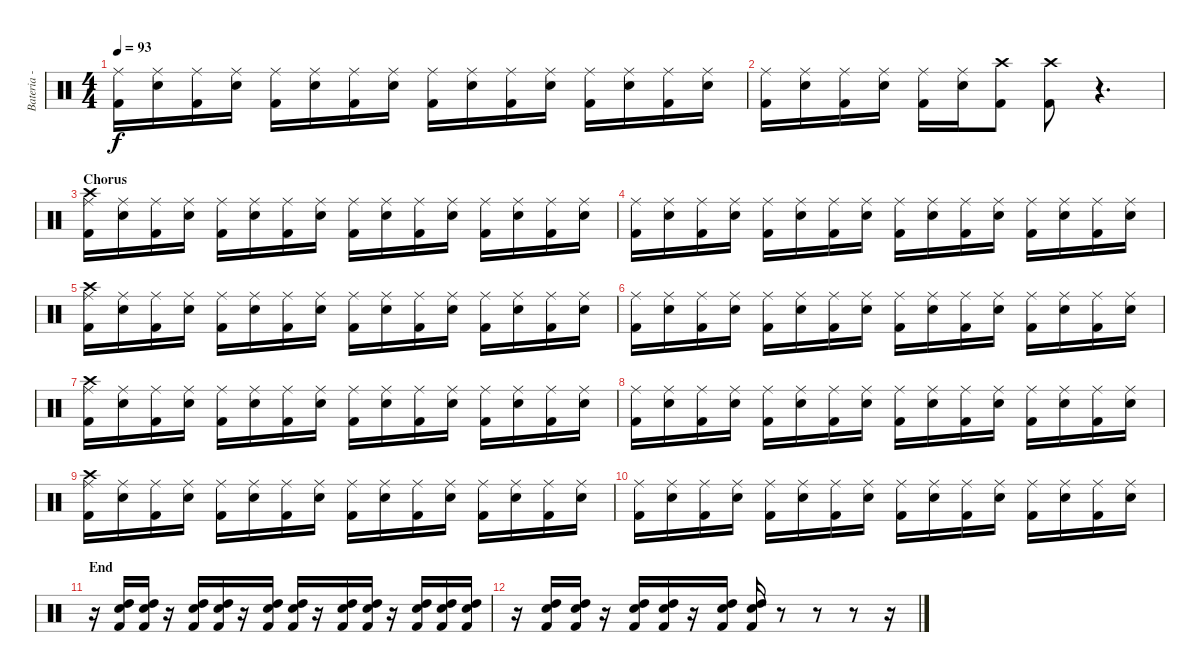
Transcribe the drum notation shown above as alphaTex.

\track ("Bateria - Larzon" "Bateria - ") {instrument percussion}
\staff {score}
\articulation defaults
\ts (4 4)
\tempo 93
\clef neutral
\ks c
("Kick (hit) 2" "Ride (middle)").16{dy f} ("Electric Snare (hit)" "Ride (middle)").16 ("Kick (hit) 2" "Ride (middle)").16 ("Electric Snare (hit)" "Ride (middle)").16 ("Kick (hit) 2" "Ride (middle)").16 ("Electric Snare (hit)" "Ride (middle)").16 ("Kick (hit) 2" "Ride (middle)").16 ("Electric Snare (hit)" "Ride (middle)").16 ("Kick (hit) 2" "Ride (middle)").16 ("Electric Snare (hit)" "Ride (middle)").16 ("Kick (hit) 2" "Ride (middle)").16 ("Electric Snare (hit)" "Ride (middle)").16 ("Kick (hit) 2" "Ride (middle)").16 ("Electric Snare (hit)" "Ride (middle)").16 ("Kick (hit) 2" "Ride (middle)").16 ("Electric Snare (hit)" "Ride (middle)").16 |
("Kick (hit) 2" "Ride (middle)").16 ("Electric Snare (hit)" "Ride (middle)").16 ("Kick (hit) 2" "Ride (middle)").16 ("Electric Snare (hit)" "Ride (middle)").16 ("Kick (hit) 2" "Ride (middle)").16 ("Electric Snare (hit)" "Ride (middle)").16 ("Kick (hit) 2" "Crash high (hit)").8 ("Kick (hit) 2" "Crash high (hit)").8 r.4{d} |
\section ("" "Chorus ")
("Kick (hit) 2" "Crash high (hit)" "Ride (middle)").16 ("Electric Snare (hit)" "Ride (middle)").16 ("Kick (hit) 2" "Ride (middle)").16 ("Electric Snare (hit)" "Ride (middle)").16 ("Kick (hit) 2" "Ride (middle)").16 ("Electric Snare (hit)" "Ride (middle)").16 ("Kick (hit) 2" "Ride (middle)").16 ("Electric Snare (hit)" "Ride (middle)").16 ("Kick (hit) 2" "Ride (middle)").16 ("Electric Snare (hit)" "Ride (middle)").16 ("Kick (hit) 2" "Ride (middle)").16 ("Electric Snare (hit)" "Ride (middle)").16 ("Kick (hit) 2" "Ride (middle)").16 ("Electric Snare (hit)" "Ride (middle)").16 ("Kick (hit) 2" "Ride (middle)").16 ("Electric Snare (hit)" "Ride (middle)").16 |
("Kick (hit) 2" "Ride (middle)").16 ("Electric Snare (hit)" "Ride (middle)").16 ("Kick (hit) 2" "Ride (middle)").16 ("Electric Snare (hit)" "Ride (middle)").16 ("Kick (hit) 2" "Ride (middle)").16 ("Electric Snare (hit)" "Ride (middle)").16 ("Kick (hit) 2" "Ride (middle)").16 ("Electric Snare (hit)" "Ride (middle)").16 ("Kick (hit) 2" "Ride (middle)").16 ("Electric Snare (hit)" "Ride (middle)").16 ("Kick (hit) 2" "Ride (middle)").16 ("Electric Snare (hit)" "Ride (middle)").16 ("Kick (hit) 2" "Ride (middle)").16 ("Electric Snare (hit)" "Ride (middle)").16 ("Kick (hit) 2" "Ride (middle)").16 ("Electric Snare (hit)" "Ride (middle)").16 |
("Kick (hit) 2" "Crash high (hit)" "Ride (middle)").16 ("Electric Snare (hit)" "Ride (middle)").16 ("Kick (hit) 2" "Ride (middle)").16 ("Electric Snare (hit)" "Ride (middle)").16 ("Kick (hit) 2" "Ride (middle)").16 ("Electric Snare (hit)" "Ride (middle)").16 ("Kick (hit) 2" "Ride (middle)").16 ("Electric Snare (hit)" "Ride (middle)").16 ("Kick (hit) 2" "Ride (middle)").16 ("Electric Snare (hit)" "Ride (middle)").16 ("Kick (hit) 2" "Ride (middle)").16 ("Electric Snare (hit)" "Ride (middle)").16 ("Kick (hit) 2" "Ride (middle)").16 ("Electric Snare (hit)" "Ride (middle)").16 ("Kick (hit) 2" "Ride (middle)").16 ("Electric Snare (hit)" "Ride (middle)").16 |
("Kick (hit) 2" "Ride (middle)").16 ("Electric Snare (hit)" "Ride (middle)").16 ("Kick (hit) 2" "Ride (middle)").16 ("Electric Snare (hit)" "Ride (middle)").16 ("Kick (hit) 2" "Ride (middle)").16 ("Electric Snare (hit)" "Ride (middle)").16 ("Kick (hit) 2" "Ride (middle)").16 ("Electric Snare (hit)" "Ride (middle)").16 ("Kick (hit) 2" "Ride (middle)").16 ("Electric Snare (hit)" "Ride (middle)").16 ("Kick (hit) 2" "Ride (middle)").16 ("Electric Snare (hit)" "Ride (middle)").16 ("Kick (hit) 2" "Ride (middle)").16 ("Electric Snare (hit)" "Ride (middle)").16 ("Kick (hit) 2" "Ride (middle)").16 ("Electric Snare (hit)" "Ride (middle)").16 |
("Kick (hit) 2" "Crash high (hit)" "Ride (middle)").16 ("Electric Snare (hit)" "Ride (middle)").16 ("Kick (hit) 2" "Ride (middle)").16 ("Electric Snare (hit)" "Ride (middle)").16 ("Kick (hit) 2" "Ride (middle)").16 ("Electric Snare (hit)" "Ride (middle)").16 ("Kick (hit) 2" "Ride (middle)").16 ("Electric Snare (hit)" "Ride (middle)").16 ("Kick (hit) 2" "Ride (middle)").16 ("Electric Snare (hit)" "Ride (middle)").16 ("Kick (hit) 2" "Ride (middle)").16 ("Electric Snare (hit)" "Ride (middle)").16 ("Kick (hit) 2" "Ride (middle)").16 ("Electric Snare (hit)" "Ride (middle)").16 ("Kick (hit) 2" "Ride (middle)").16 ("Electric Snare (hit)" "Ride (middle)").16 |
("Kick (hit) 2" "Ride (middle)").16 ("Electric Snare (hit)" "Ride (middle)").16 ("Kick (hit) 2" "Ride (middle)").16 ("Electric Snare (hit)" "Ride (middle)").16 ("Kick (hit) 2" "Ride (middle)").16 ("Electric Snare (hit)" "Ride (middle)").16 ("Kick (hit) 2" "Ride (middle)").16 ("Electric Snare (hit)" "Ride (middle)").16 ("Kick (hit) 2" "Ride (middle)").16 ("Electric Snare (hit)" "Ride (middle)").16 ("Kick (hit) 2" "Ride (middle)").16 ("Electric Snare (hit)" "Ride (middle)").16 ("Kick (hit) 2" "Ride (middle)").16 ("Electric Snare (hit)" "Ride (middle)").16 ("Kick (hit) 2" "Ride (middle)").16 ("Electric Snare (hit)" "Ride (middle)").16 |
("Kick (hit) 2" "Crash high (hit)" "Ride (middle)").16 ("Electric Snare (hit)" "Ride (middle)").16 ("Kick (hit) 2" "Ride (middle)").16 ("Electric Snare (hit)" "Ride (middle)").16 ("Kick (hit) 2" "Ride (middle)").16 ("Electric Snare (hit)" "Ride (middle)").16 ("Kick (hit) 2" "Ride (middle)").16 ("Electric Snare (hit)" "Ride (middle)").16 ("Kick (hit) 2" "Ride (middle)").16 ("Electric Snare (hit)" "Ride (middle)").16 ("Kick (hit) 2" "Ride (middle)").16 ("Electric Snare (hit)" "Ride (middle)").16 ("Kick (hit) 2" "Ride (middle)").16 ("Electric Snare (hit)" "Ride (middle)").16 ("Kick (hit) 2" "Ride (middle)").16 ("Electric Snare (hit)" "Ride (middle)").16 |
("Kick (hit) 2" "Ride (middle)").16 ("Electric Snare (hit)" "Ride (middle)").16 ("Kick (hit) 2" "Ride (middle)").16 ("Electric Snare (hit)" "Ride (middle)").16 ("Kick (hit) 2" "Ride (middle)").16 ("Electric Snare (hit)" "Ride (middle)").16 ("Kick (hit) 2" "Ride (middle)").16 ("Electric Snare (hit)" "Ride (middle)").16 ("Kick (hit) 2" "Ride (middle)").16 ("Electric Snare (hit)" "Ride (middle)").16 ("Kick (hit) 2" "Ride (middle)").16 ("Electric Snare (hit)" "Ride (middle)").16 ("Kick (hit) 2" "Ride (middle)").16 ("Electric Snare (hit)" "Ride (middle)").16 ("Kick (hit) 2" "Ride (middle)").16 ("Electric Snare (hit)" "Ride (middle)").16 |
\section ("" "End")
r.16{volume 0} ("Electric Snare (hit)" "High Tom (hit)" "Kick (hit) 2").16 ("Electric Snare (hit)" "High Tom (hit)" "Kick (hit) 2").16 r.16 ("Electric Snare (hit)" "High Tom (hit)" "Kick (hit) 2").16 ("Electric Snare (hit)" "High Tom (hit)" "Kick (hit) 2").16 r.16 ("Electric Snare (hit)" "High Tom (hit)" "Kick (hit) 2").16 ("Electric Snare (hit)" "High Tom (hit)" "Kick (hit) 2").16 r.16 ("Electric Snare (hit)" "High Tom (hit)" "Kick (hit) 2").16 ("Electric Snare (hit)" "High Tom (hit)" "Kick (hit) 2").16 r.16 ("Electric Snare (hit)" "High Tom (hit)" "Kick (hit) 2").16 ("Electric Snare (hit)" "High Tom (hit)" "Kick (hit) 2").16 ("Electric Snare (hit)" "High Tom (hit)" "Kick (hit) 2").16 |
r.16 ("Electric Snare (hit)" "High Tom (hit)" "Kick (hit) 2").16 ("Electric Snare (hit)" "High Tom (hit)" "Kick (hit) 2").16 r.16 ("Electric Snare (hit)" "High Tom (hit)" "Kick (hit) 2").16 ("Electric Snare (hit)" "High Tom (hit)" "Kick (hit) 2").16 r.16 ("Electric Snare (hit)" "High Tom (hit)" "Kick (hit) 2").16 ("Electric Snare (hit)" "High Tom (hit)" "Kick (hit) 2").16 r.8 r.8 r.8 r.16
